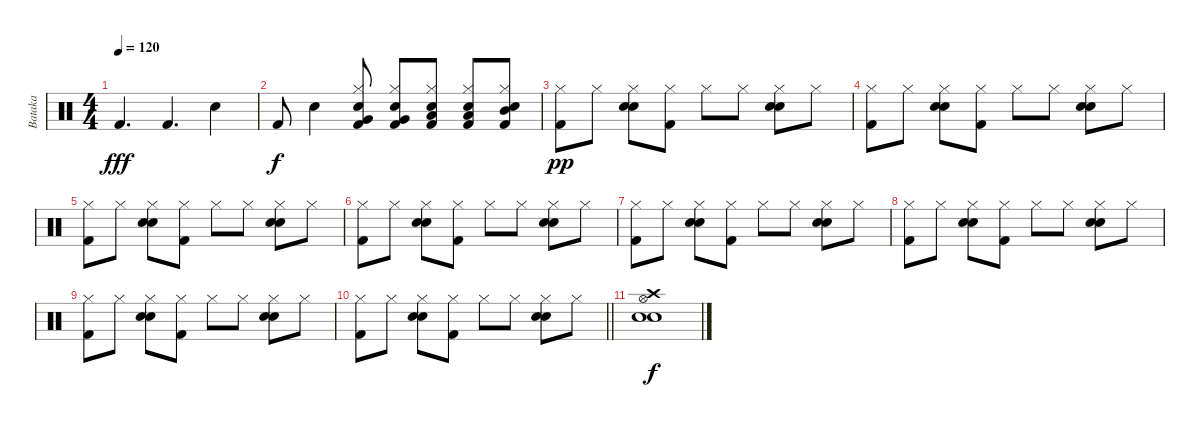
\track ("Bataka" "Bataka") {instrument percussion}
\staff {score}
\articulation defaults
\ts (4 4)
\tempo 120
\clef neutral
\ks c "Kick (hit) 2".4{d dy fff} "Kick (hit) 2".4{d} "Electric Snare (hit)".4
|
"Kick (hit) 2".8{dy f} "Electric Snare (hit)".4 ("Electric Snare (hit)" "Hi-Hat (closed)" "Kick (hit) 2" "Very Low Tom (hit)").8 ("Electric Snare (hit)" "Hi-Hat (closed)" "Kick (hit) 2" "Very Low Tom (hit)").8 ("Electric Snare (hit)" "Hi-Hat (closed)" "Kick (hit) 2" "Low Tom (hit)").8 ("Electric Snare (hit)" "Hi-Hat (closed)" "Kick (hit) 2" "Low Tom (hit)").8 ("Electric Snare (hit)" "Hi-Hat (closed)" "Kick (hit) 2" "Mid Tom (hit)").8 |
("Hi-Hat (closed)" "Kick (hit) 2").8{dy pp} "Hi-Hat (closed)".8 ("Hi-Hat (closed)" "Electric Snare (hit)" "Snare (hit) 2").8 ("Hi-Hat (closed)" "Kick (hit) 2").8 "Hi-Hat (closed)".8 "Hi-Hat (closed)".8 ("Hi-Hat (closed)" "Snare (hit) 2" "Electric Snare (hit)").8 "Hi-Hat (closed)".8 |
("Hi-Hat (closed)" "Kick (hit) 2").8 "Hi-Hat (closed)".8 ("Hi-Hat (closed)" "Electric Snare (hit)" "Snare (hit) 2").8 ("Hi-Hat (closed)" "Kick (hit) 2").8 "Hi-Hat (closed)".8 "Hi-Hat (closed)".8 ("Hi-Hat (closed)" "Snare (hit) 2" "Electric Snare (hit)").8 "Hi-Hat (closed)".8 |
("Hi-Hat (closed)" "Kick (hit) 2").8 "Hi-Hat (closed)".8 ("Hi-Hat (closed)" "Electric Snare (hit)" "Snare (hit) 2").8 ("Hi-Hat (closed)" "Kick (hit) 2").8 "Hi-Hat (closed)".8 "Hi-Hat (closed)".8 ("Hi-Hat (closed)" "Snare (hit) 2" "Electric Snare (hit)").8 "Hi-Hat (closed)".8 |
("Hi-Hat (closed)" "Kick (hit) 2").8 "Hi-Hat (closed)".8 ("Hi-Hat (closed)" "Electric Snare (hit)" "Snare (hit) 2").8 ("Hi-Hat (closed)" "Kick (hit) 2").8 "Hi-Hat (closed)".8 "Hi-Hat (closed)".8 ("Hi-Hat (closed)" "Snare (hit) 2" "Electric Snare (hit)").8 "Hi-Hat (closed)".8 |
("Hi-Hat (closed)" "Kick (hit) 2").8 "Hi-Hat (closed)".8 ("Hi-Hat (closed)" "Electric Snare (hit)" "Snare (hit) 2").8 ("Hi-Hat (closed)" "Kick (hit) 2").8 "Hi-Hat (closed)".8 "Hi-Hat (closed)".8 ("Hi-Hat (closed)" "Snare (hit) 2" "Electric Snare (hit)").8 "Hi-Hat (closed)".8 |
("Hi-Hat (closed)" "Kick (hit) 2").8 "Hi-Hat (closed)".8 ("Hi-Hat (closed)" "Electric Snare (hit)" "Snare (hit) 2").8 ("Hi-Hat (closed)" "Kick (hit) 2").8 "Hi-Hat (closed)".8 "Hi-Hat (closed)".8 ("Hi-Hat (closed)" "Snare (hit) 2" "Electric Snare (hit)").8 "Hi-Hat (closed)".8 |
("Hi-Hat (closed)" "Kick (hit) 2").8 "Hi-Hat (closed)".8 ("Hi-Hat (closed)" "Electric Snare (hit)" "Snare (hit) 2").8 ("Hi-Hat (closed)" "Kick (hit) 2").8 "Hi-Hat (closed)".8 "Hi-Hat (closed)".8 ("Hi-Hat (closed)" "Snare (hit) 2" "Electric Snare (hit)").8 "Hi-Hat (closed)".8 |
\barLineRight lightlight
("Hi-Hat (closed)" "Kick (hit) 2").8 "Hi-Hat (closed)".8 ("Hi-Hat (closed)" "Electric Snare (hit)" "Snare (hit) 2").8 ("Hi-Hat (closed)" "Kick (hit) 2").8 "Hi-Hat (closed)".8 "Hi-Hat (closed)".8 ("Hi-Hat (closed)" "Snare (hit) 2" "Electric Snare (hit)").8 "Hi-Hat (closed)".8 |
("Snare (hit) 2" "Electric Snare (hit)" "Crash high (hit)" "Hi-Hat (open)").1{dy f}
